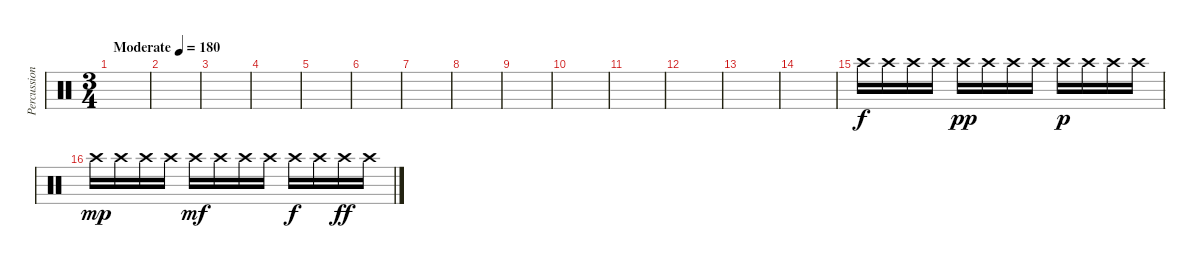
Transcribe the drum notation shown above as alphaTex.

\track ("Percussion" "Percussion") {instrument percussion}
\staff {score}
\articulation defaults
\ts (3 4)
\tempo (180 "Moderate")
\clef neutral
\ks c
|
|
|
|
|
|
|
|
|
|
|
|
|
|
"Crash high (hit)".16 "Crash high (hit)".16 "Crash high (hit)".16 "Crash high (hit)".16 "Crash high (hit)".16{dy pp} "Crash high (hit)".16 "Crash high (hit)".16 "Crash high (hit)".16 "Crash high (hit)".16{dy p} "Crash high (hit)".16 "Crash high (hit)".16 "Crash high (hit)".16 |
"Crash high (hit)".16{dy mp} "Crash high (hit)".16 "Crash high (hit)".16 "Crash high (hit)".16 "Crash high (hit)".16{dy mf} "Crash high (hit)".16 "Crash high (hit)".16 "Crash high (hit)".16 "Crash high (hit)".16{dy f} "Crash high (hit)".16 "Crash high (hit)".16{dy ff} "Crash high (hit)".16
